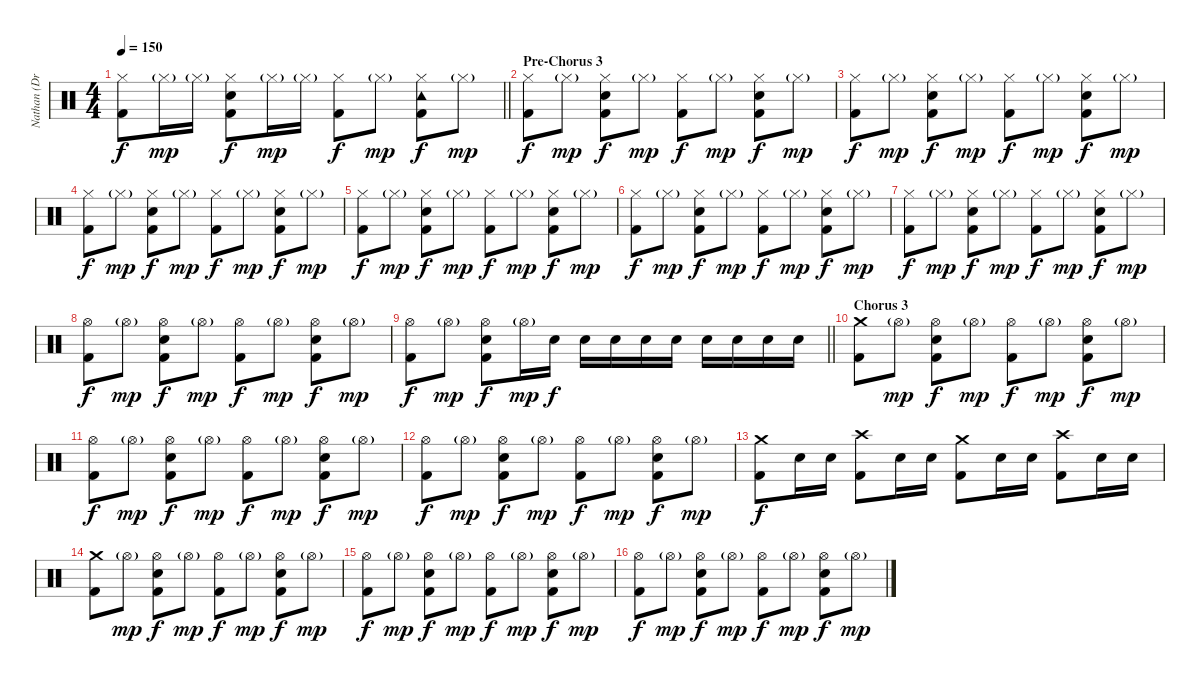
\track ("Nathan (Drums)" "Nathan (Dr") {instrument percussion}
\staff {score}
\articulation defaults
\ts (4 4)
\tempo 150
\clef neutral
\barLineRight lightlight
\ks c
("Hi-Hat (closed)" "Kick (hit) 2").8{dy f} "Hi-Hat (closed)"{g}.16{dy mp} "Hi-Hat (closed)"{g}.16 ("Hi-Hat (closed)" "Electric Snare (hit)" "Kick (hit) 2").8{dy f} "Hi-Hat (closed)"{g}.16{dy mp} "Hi-Hat (closed)"{g}.16 ("Hi-Hat (closed)" "Kick (hit) 2").8{dy f} "Hi-Hat (closed)"{g}.8{dy mp} ("Hi-Hat (closed)" "Tambourine (hit)" "Kick (hit) 2").8{dy f} "Hi-Hat (closed)"{g}.8{dy mp} |
\section ("" "Pre-Chorus 3")
("Hi-Hat (closed)" "Kick (hit) 2").8{dy f} "Hi-Hat (closed)"{g}.8{dy mp} ("Hi-Hat (closed)" "Electric Snare (hit)" "Kick (hit) 2").8{dy f} "Hi-Hat (closed)"{g}.8{dy mp} ("Hi-Hat (closed)" "Kick (hit) 2").8{dy f} "Hi-Hat (closed)"{g}.8{dy mp} ("Hi-Hat (closed)" "Electric Snare (hit)" "Kick (hit) 2").8{dy f} "Hi-Hat (closed)"{g}.8{dy mp} |
("Hi-Hat (closed)" "Kick (hit) 2").8{dy f} "Hi-Hat (closed)"{g}.8{dy mp} ("Hi-Hat (closed)" "Electric Snare (hit)" "Kick (hit) 2").8{dy f} "Hi-Hat (closed)"{g}.8{dy mp} ("Hi-Hat (closed)" "Kick (hit) 2").8{dy f} "Hi-Hat (closed)"{g}.8{dy mp} ("Hi-Hat (closed)" "Electric Snare (hit)" "Kick (hit) 2").8{dy f} "Hi-Hat (closed)"{g}.8{dy mp} |
("Hi-Hat (closed)" "Kick (hit) 2").8{dy f} "Hi-Hat (closed)"{g}.8{dy mp} ("Hi-Hat (closed)" "Electric Snare (hit)" "Kick (hit) 2").8{dy f} "Hi-Hat (closed)"{g}.8{dy mp} ("Hi-Hat (closed)" "Kick (hit) 2").8{dy f} "Hi-Hat (closed)"{g}.8{dy mp} ("Hi-Hat (closed)" "Electric Snare (hit)" "Kick (hit) 2").8{dy f} "Hi-Hat (closed)"{g}.8{dy mp} |
("Hi-Hat (closed)" "Kick (hit) 2").8{dy f} "Hi-Hat (closed)"{g}.8{dy mp} ("Hi-Hat (closed)" "Electric Snare (hit)" "Kick (hit) 2").8{dy f} "Hi-Hat (closed)"{g}.8{dy mp} ("Hi-Hat (closed)" "Kick (hit) 2").8{dy f} "Hi-Hat (closed)"{g}.8{dy mp} ("Hi-Hat (closed)" "Electric Snare (hit)" "Kick (hit) 2").8{dy f} "Hi-Hat (closed)"{g}.8{dy mp} |
("Hi-Hat (closed)" "Kick (hit) 2").8{dy f} "Hi-Hat (closed)"{g}.8{dy mp} ("Hi-Hat (closed)" "Electric Snare (hit)" "Kick (hit) 2").8{dy f} "Hi-Hat (closed)"{g}.8{dy mp} ("Hi-Hat (closed)" "Kick (hit) 2").8{dy f} "Hi-Hat (closed)"{g}.8{dy mp} ("Hi-Hat (closed)" "Electric Snare (hit)" "Kick (hit) 2").8{dy f} "Hi-Hat (closed)"{g}.8{dy mp} |
("Hi-Hat (closed)" "Kick (hit) 2").8{dy f} "Hi-Hat (closed)"{g}.8{dy mp} ("Hi-Hat (closed)" "Electric Snare (hit)" "Kick (hit) 2").8{dy f} "Hi-Hat (closed)"{g}.8{dy mp} ("Hi-Hat (closed)" "Kick (hit) 2").8{dy f} "Hi-Hat (closed)"{g}.8{dy mp} ("Hi-Hat (closed)" "Electric Snare (hit)" "Kick (hit) 2").8{dy f} "Hi-Hat (closed)"{g}.8{dy mp} |
("Hi-Hat (open)" "Kick (hit) 2").8{dy f} "Hi-Hat (open)"{g}.8{dy mp} ("Hi-Hat (open)" "Electric Snare (hit)" "Kick (hit) 2").8{dy f} "Hi-Hat (open)"{g}.8{dy mp} ("Hi-Hat (open)" "Kick (hit) 2").8{dy f} "Hi-Hat (open)"{g}.8{dy mp} ("Hi-Hat (open)" "Electric Snare (hit)" "Kick (hit) 2").8{dy f} "Hi-Hat (open)"{g}.8{dy mp} |
\barLineRight lightlight
("Hi-Hat (open)" "Kick (hit) 2").8{dy f} "Hi-Hat (open)"{g}.8{dy mp} ("Hi-Hat (open)" "Electric Snare (hit)" "Kick (hit) 2").8{dy f} "Hi-Hat (open)"{g}.16{dy mp} "Electric Snare (hit)".16{dy f} "Electric Snare (hit)".16 "Electric Snare (hit)".16 "Electric Snare (hit)".16 "Electric Snare (hit)".16 "Electric Snare (hit)".16 "Electric Snare (hit)".16 "Electric Snare (hit)".16 "Electric Snare (hit)".16 |
\section ("" "Chorus 3")
("Crash medium (hit)" "Kick (hit) 2").8 "Hi-Hat (open)"{g}.8{dy mp} ("Hi-Hat (open)" "Electric Snare (hit)" "Kick (hit) 2").8{dy f} "Hi-Hat (open)"{g}.8{dy mp} ("Hi-Hat (open)" "Kick (hit) 2").8{dy f} "Hi-Hat (open)"{g}.8{dy mp} ("Hi-Hat (open)" "Electric Snare (hit)" "Kick (hit) 2").8{dy f} "Hi-Hat (open)"{g}.8{dy mp} |
("Hi-Hat (open)" "Kick (hit) 2").8{dy f} "Hi-Hat (open)"{g}.8{dy mp} ("Hi-Hat (open)" "Electric Snare (hit)" "Kick (hit) 2").8{dy f} "Hi-Hat (open)"{g}.8{dy mp} ("Hi-Hat (open)" "Kick (hit) 2").8{dy f} "Hi-Hat (open)"{g}.8{dy mp} ("Hi-Hat (open)" "Electric Snare (hit)" "Kick (hit) 2").8{dy f} "Hi-Hat (open)"{g}.8{dy mp} |
("Hi-Hat (open)" "Kick (hit) 2").8{dy f} "Hi-Hat (open)"{g}.8{dy mp} ("Hi-Hat (open)" "Electric Snare (hit)" "Kick (hit) 2").8{dy f} "Hi-Hat (open)"{g}.8{dy mp} ("Hi-Hat (open)" "Kick (hit) 2").8{dy f} "Hi-Hat (open)"{g}.8{dy mp} ("Hi-Hat (open)" "Electric Snare (hit)" "Kick (hit) 2").8{dy f} "Hi-Hat (open)"{g}.8{dy mp} |
("Crash medium (hit)" "Kick (hit) 2").8{dy f} "Electric Snare (hit)".16 "Electric Snare (hit)".16 ("Crash high (hit)" "Kick (hit) 2").8 "Electric Snare (hit)".16 "Electric Snare (hit)".16 ("Crash medium (hit)" "Kick (hit) 2").8 "Electric Snare (hit)".16 "Electric Snare (hit)".16 ("Crash high (hit)" "Kick (hit) 2").8 "Electric Snare (hit)".16 "Electric Snare (hit)".16 |
("Crash medium (hit)" "Kick (hit) 2").8 "Hi-Hat (open)"{g}.8{dy mp} ("Hi-Hat (open)" "Electric Snare (hit)" "Kick (hit) 2").8{dy f} "Hi-Hat (open)"{g}.8{dy mp} ("Hi-Hat (open)" "Kick (hit) 2").8{dy f} "Hi-Hat (open)"{g}.8{dy mp} ("Hi-Hat (open)" "Electric Snare (hit)" "Kick (hit) 2").8{dy f} "Hi-Hat (open)"{g}.8{dy mp} |
("Hi-Hat (open)" "Kick (hit) 2").8{dy f} "Hi-Hat (open)"{g}.8{dy mp} ("Hi-Hat (open)" "Electric Snare (hit)" "Kick (hit) 2").8{dy f} "Hi-Hat (open)"{g}.8{dy mp} ("Hi-Hat (open)" "Kick (hit) 2").8{dy f} "Hi-Hat (open)"{g}.8{dy mp} ("Hi-Hat (open)" "Electric Snare (hit)" "Kick (hit) 2").8{dy f} "Hi-Hat (open)"{g}.8{dy mp} |
("Hi-Hat (open)" "Kick (hit) 2").8{dy f} "Hi-Hat (open)"{g}.8{dy mp} ("Hi-Hat (open)" "Electric Snare (hit)" "Kick (hit) 2").8{dy f} "Hi-Hat (open)"{g}.8{dy mp} ("Hi-Hat (open)" "Kick (hit) 2").8{dy f} "Hi-Hat (open)"{g}.8{dy mp} ("Hi-Hat (open)" "Electric Snare (hit)" "Kick (hit) 2").8{dy f} "Hi-Hat (open)"{g}.8{dy mp}
